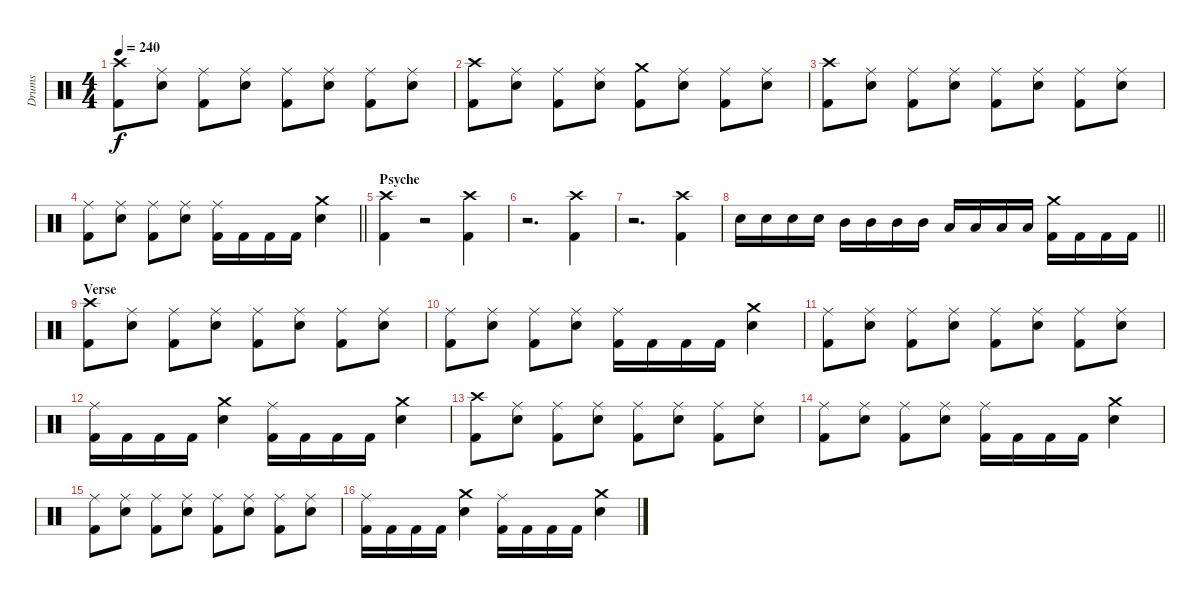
\track ("Drums" "Drums") {instrument percussion}
\staff {score}
\articulation defaults
\ts (4 4)
\tempo 240
\clef neutral
\ks c
("Crash high (hit)" "Kick (hit) 2").8{dy f} ("Ride (middle)" "Snare (hit) 2").8 ("Ride (middle)" "Kick (hit) 2").8 ("Ride (middle)" "Snare (hit) 2").8 ("Ride (middle)" "Kick (hit) 2").8 ("Ride (middle)" "Snare (hit) 2").8 ("Ride (middle)" "Kick (hit) 2").8 ("Ride (middle)" "Snare (hit) 2").8 |
("Crash high (hit)" "Kick (hit) 2").8 ("Ride (middle)" "Snare (hit) 2").8 ("Ride (middle)" "Kick (hit) 2").8 ("Ride (middle)" "Snare (hit) 2").8 ("Crash medium (hit)" "Kick (hit) 2").8 ("Ride (middle)" "Snare (hit) 2").8 ("Ride (middle)" "Kick (hit) 2").8 ("Ride (middle)" "Snare (hit) 2").8 |
("Crash high (hit)" "Kick (hit) 2").8 ("Ride (middle)" "Snare (hit) 2").8 ("Ride (middle)" "Kick (hit) 2").8 ("Ride (middle)" "Snare (hit) 2").8 ("Ride (middle)" "Kick (hit) 2").8 ("Ride (middle)" "Snare (hit) 2").8 ("Ride (middle)" "Kick (hit) 2").8 ("Ride (middle)" "Snare (hit) 2").8 |
\barLineRight lightlight
("Ride (middle)" "Kick (hit) 2").8 ("Ride (middle)" "Snare (hit) 2").8 ("Ride (middle)" "Kick (hit) 2").8 ("Ride (middle)" "Snare (hit) 2").8 ("Ride (middle)" "Kick (hit) 2").16 "Kick (hit) 2".16 "Kick (hit) 2".16 "Kick (hit) 2".16 ("Crash medium (hit)" "Snare (hit) 2").4 |
\section ("" "Psyche")
("Crash high (hit)" "Kick (hit) 2").4 r.2 ("Crash high (hit)" "Kick (hit) 2").4 |
r.2{d} ("Crash high (hit)" "Kick (hit) 2").4 |
r.2{d} ("Crash high (hit)" "Kick (hit) 2").4 |
\barLineRight lightlight "Snare (hit) 2".16 "Snare (hit) 2".16 "Snare (hit) 2".16 "Snare (hit) 2".16 "Mid Tom (hit)".16 "Mid Tom (hit)".16 "Mid Tom (hit)".16 "Mid Tom (hit)".16 "Low Tom (hit)".16 "Low Tom (hit)".16 "Low Tom (hit)".16 "Low Tom (hit)".16
("Crash medium (hit)" "Kick (hit) 2").16 "Kick (hit) 2".16 "Kick (hit) 2".16 "Kick (hit) 2".16 |
\section ("" "Verse")
("Crash high (hit)" "Kick (hit) 2").8 ("Ride (middle)" "Snare (hit) 2").8 ("Ride (middle)" "Kick (hit) 2").8 ("Ride (middle)" "Snare (hit) 2").8 ("Ride (middle)" "Kick (hit) 2").8 ("Ride (middle)" "Snare (hit) 2").8 ("Ride (middle)" "Kick (hit) 2").8 ("Ride (middle)" "Snare (hit) 2").8 |
("Ride (middle)" "Kick (hit) 2").8 ("Ride (middle)" "Snare (hit) 2").8 ("Ride (middle)" "Kick (hit) 2").8 ("Ride (middle)" "Snare (hit) 2").8 ("Ride (middle)" "Kick (hit) 2").16 "Kick (hit) 2".16 "Kick (hit) 2".16 "Kick (hit) 2".16 ("Crash medium (hit)" "Snare (hit) 2").4 |
("Ride (middle)" "Kick (hit) 2").8 ("Ride (middle)" "Snare (hit) 2").8 ("Ride (middle)" "Kick (hit) 2").8 ("Ride (middle)" "Snare (hit) 2").8 ("Ride (middle)" "Kick (hit) 2").8 ("Ride (middle)" "Snare (hit) 2").8 ("Ride (middle)" "Kick (hit) 2").8 ("Ride (middle)" "Snare (hit) 2").8 |
("Ride (middle)" "Kick (hit) 2").16 "Kick (hit) 2".16 "Kick (hit) 2".16 "Kick (hit) 2".16 ("Crash medium (hit)" "Snare (hit) 2").4 ("Ride (middle)" "Kick (hit) 2").16 "Kick (hit) 2".16 "Kick (hit) 2".16 "Kick (hit) 2".16 ("Crash medium (hit)" "Snare (hit) 2").4 |
("Crash high (hit)" "Kick (hit) 2").8 ("Ride (middle)" "Snare (hit) 2").8 ("Ride (middle)" "Kick (hit) 2").8 ("Ride (middle)" "Snare (hit) 2").8 ("Ride (middle)" "Kick (hit) 2").8 ("Ride (middle)" "Snare (hit) 2").8 ("Ride (middle)" "Kick (hit) 2").8 ("Ride (middle)" "Snare (hit) 2").8 |
("Ride (middle)" "Kick (hit) 2").8 ("Ride (middle)" "Snare (hit) 2").8 ("Ride (middle)" "Kick (hit) 2").8 ("Ride (middle)" "Snare (hit) 2").8 ("Ride (middle)" "Kick (hit) 2").16 "Kick (hit) 2".16 "Kick (hit) 2".16 "Kick (hit) 2".16 ("Crash medium (hit)" "Snare (hit) 2").4 |
("Ride (middle)" "Kick (hit) 2").8 ("Ride (middle)" "Snare (hit) 2").8 ("Ride (middle)" "Kick (hit) 2").8 ("Ride (middle)" "Snare (hit) 2").8 ("Ride (middle)" "Kick (hit) 2").8 ("Ride (middle)" "Snare (hit) 2").8 ("Ride (middle)" "Kick (hit) 2").8 ("Ride (middle)" "Snare (hit) 2").8 |
("Ride (middle)" "Kick (hit) 2").16 "Kick (hit) 2".16 "Kick (hit) 2".16 "Kick (hit) 2".16 ("Crash medium (hit)" "Snare (hit) 2").4 ("Ride (middle)" "Kick (hit) 2").16 "Kick (hit) 2".16 "Kick (hit) 2".16 "Kick (hit) 2".16 ("Crash medium (hit)" "Snare (hit) 2").4
